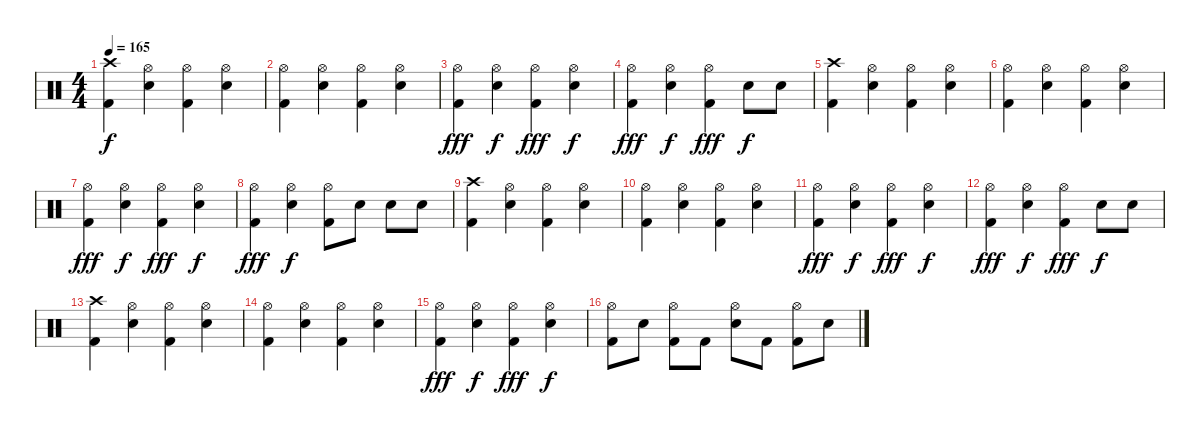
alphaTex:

\track "" {instrument percussion}
\staff {score}
\articulation defaults
\ts (4 4)
\tempo 165
\clef neutral
\ks c
("Kick (hit) 2" "Crash high (hit)").4{dy f} ("Electric Snare (hit)" "Hi-Hat (open)").4 ("Kick (hit) 2" "Hi-Hat (open)").4 ("Electric Snare (hit)" "Hi-Hat (open)").4 |
("Hi-Hat (open)" "Kick (hit) 2").4 ("Hi-Hat (open)" "Electric Snare (hit)").4 ("Hi-Hat (open)" "Kick (hit) 2").4 ("Hi-Hat (open)" "Electric Snare (hit)").4 |
("Hi-Hat (open)" "Kick (hit) 2").4{dy fff} ("Hi-Hat (open)" "Electric Snare (hit)").4{dy f} ("Hi-Hat (open)" "Kick (hit) 2").4{dy fff} ("Hi-Hat (open)" "Electric Snare (hit)").4{dy f} |
("Hi-Hat (open)" "Kick (hit) 2").4{dy fff} ("Hi-Hat (open)" "Electric Snare (hit)").4{dy f} ("Hi-Hat (open)" "Kick (hit) 2").4{dy fff} "Electric Snare (hit)".8{dy f} "Electric Snare (hit)".8 |
("Kick (hit) 2" "Crash high (hit)").4 ("Electric Snare (hit)" "Hi-Hat (open)").4 ("Kick (hit) 2" "Hi-Hat (open)").4 ("Electric Snare (hit)" "Hi-Hat (open)").4 |
("Hi-Hat (open)" "Kick (hit) 2").4 ("Hi-Hat (open)" "Electric Snare (hit)").4 ("Hi-Hat (open)" "Kick (hit) 2").4 ("Hi-Hat (open)" "Electric Snare (hit)").4 |
("Hi-Hat (open)" "Kick (hit) 2").4{dy fff} ("Hi-Hat (open)" "Electric Snare (hit)").4{dy f} ("Hi-Hat (open)" "Kick (hit) 2").4{dy fff} ("Hi-Hat (open)" "Electric Snare (hit)").4{dy f} |
("Hi-Hat (open)" "Kick (hit) 2").4{dy fff} ("Hi-Hat (open)" "Electric Snare (hit)").4{dy f} ("Kick (hit) 2" "Hi-Hat (open)").8 "Electric Snare (hit)".8 "Electric Snare (hit)".8 "Electric Snare (hit)".8 |
("Kick (hit) 2" "Crash high (hit)").4 ("Electric Snare (hit)" "Hi-Hat (open)").4 ("Kick (hit) 2" "Hi-Hat (open)").4 ("Electric Snare (hit)" "Hi-Hat (open)").4 |
("Hi-Hat (open)" "Kick (hit) 2").4 ("Hi-Hat (open)" "Electric Snare (hit)").4 ("Hi-Hat (open)" "Kick (hit) 2").4 ("Hi-Hat (open)" "Electric Snare (hit)").4 |
("Hi-Hat (open)" "Kick (hit) 2").4{dy fff} ("Hi-Hat (open)" "Electric Snare (hit)").4{dy f} ("Hi-Hat (open)" "Kick (hit) 2").4{dy fff} ("Hi-Hat (open)" "Electric Snare (hit)").4{dy f} |
("Hi-Hat (open)" "Kick (hit) 2").4{dy fff} ("Hi-Hat (open)" "Electric Snare (hit)").4{dy f} ("Hi-Hat (open)" "Kick (hit) 2").4{dy fff} "Electric Snare (hit)".8{dy f} "Electric Snare (hit)".8 |
("Kick (hit) 2" "Crash high (hit)").4 ("Electric Snare (hit)" "Hi-Hat (open)").4 ("Kick (hit) 2" "Hi-Hat (open)").4 ("Electric Snare (hit)" "Hi-Hat (open)").4 |
("Hi-Hat (open)" "Kick (hit) 2").4 ("Hi-Hat (open)" "Electric Snare (hit)").4 ("Hi-Hat (open)" "Kick (hit) 2").4 ("Hi-Hat (open)" "Electric Snare (hit)").4 |
("Hi-Hat (open)" "Kick (hit) 2").4{dy fff} ("Hi-Hat (open)" "Electric Snare (hit)").4{dy f} ("Hi-Hat (open)" "Kick (hit) 2").4{dy fff} ("Hi-Hat (open)" "Electric Snare (hit)").4{dy f} |
("Hi-Hat (open)" "Kick (hit) 2").8 "Electric Snare (hit)".8 ("Hi-Hat (open)" "Kick (hit) 2").8 "Kick (hit) 2".8 ("Hi-Hat (open)" "Electric Snare (hit)").8 "Kick (hit) 2".8 ("Hi-Hat (open)" "Kick (hit) 2").8 "Electric Snare (hit)".8
